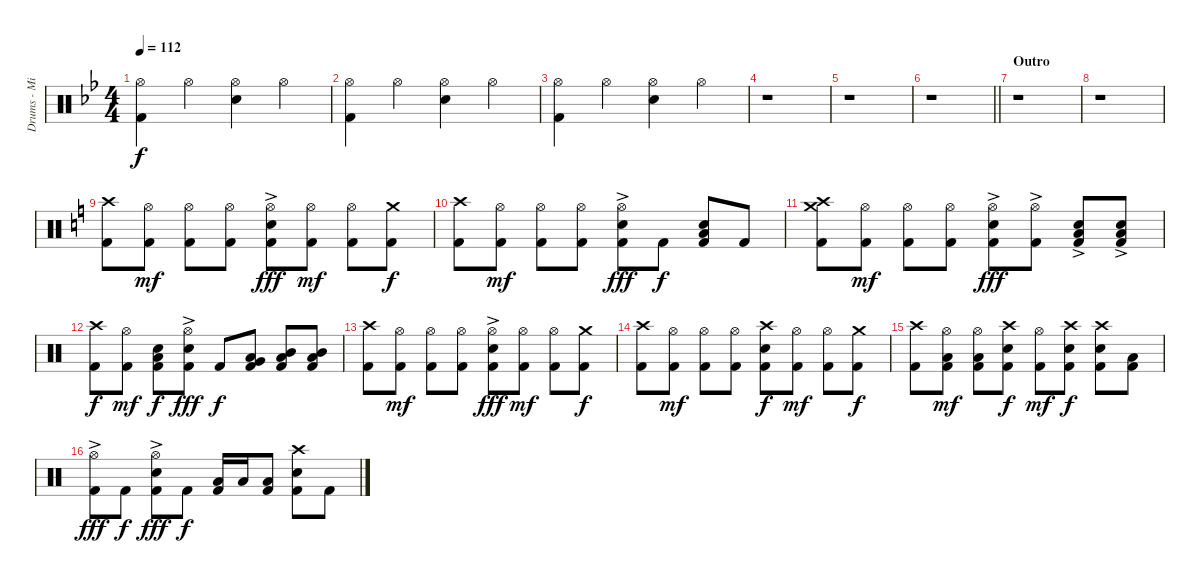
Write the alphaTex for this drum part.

\track ("Drums - Mikko" "Drums - Mi") {instrument percussion}
\staff {score}
\articulation defaults
\ts (4 4)
\tempo 112
\clef neutral
\ks bb
("Hi-Hat (open)" "Kick (hit) 2").4{dy f} "Hi-Hat (open)".4 ("Hi-Hat (open)" "Electric Snare (hit)").4 "Hi-Hat (open)".4 |
("Hi-Hat (open)" "Kick (hit) 2").4 "Hi-Hat (open)".4 ("Hi-Hat (open)" "Electric Snare (hit)").4 "Hi-Hat (open)".4 |
("Hi-Hat (open)" "Kick (hit) 2").4 "Hi-Hat (open)".4 ("Hi-Hat (open)" "Electric Snare (hit)").4 "Hi-Hat (open)".4 |
r.1 |
r.1 |
\barLineRight lightlight
r.1 |
\section ("" "Outro")
r.1 |
r.1 |
\ks c
("Crash high (hit)" "Kick (hit) 2").8 ("Hi-Hat (open)" "Kick (hit) 2").8{dy mf} ("Hi-Hat (open)" "Kick (hit) 2").8 ("Hi-Hat (open)" "Kick (hit) 2").8 ("Hi-Hat (open)"{ac} "Electric Snare (hit)" "Kick (hit) 2").8{dy fff} ("Hi-Hat (open)" "Kick (hit) 2").8{dy mf} ("Hi-Hat (open)" "Kick (hit) 2").8 ("Crash medium (hit)" "Kick (hit) 2").8{dy f} |
("Crash high (hit)" "Kick (hit) 2").8 ("Hi-Hat (open)" "Kick (hit) 2").8{dy mf} ("Hi-Hat (open)" "Kick (hit) 2").8 ("Hi-Hat (open)" "Kick (hit) 2").8 ("Hi-Hat (open)"{ac} "Electric Snare (hit)" "Kick (hit) 2").8{dy fff} "Kick (hit) 2".8{dy f} ("Low Tom (hit)" "Electric Snare (hit)" "Kick (hit) 2").8 "Kick (hit) 2".8 |
("Crash high (hit)" "Crash medium (hit)" "Kick (hit) 2").8 ("Hi-Hat (open)" "Kick (hit) 2").8{dy mf} ("Hi-Hat (open)" "Kick (hit) 2").8 ("Hi-Hat (open)" "Kick (hit) 2").8 ("Hi-Hat (open)"{ac} "Electric Snare (hit)" "Kick (hit) 2").8{dy fff} ("Hi-Hat (open)" "Kick (hit) 2"{ac}).8 ("Low Tom (hit)" "Electric Snare (hit)" "Kick (hit) 2"{ac}).8 ("Low Tom (hit)" "Electric Snare (hit)" "Kick (hit) 2"{ac}).8 |
("Crash high (hit)" "Kick (hit) 2").8{dy f} ("Hi-Hat (open)" "Kick (hit) 2").8{dy mf} ("Low Tom (hit)" "Electric Snare (hit)" "Kick (hit) 2").8{dy f} ("Hi-Hat (open)"{ac} "Electric Snare (hit)" "Kick (hit) 2").8{dy fff} "Kick (hit) 2".8{dy f} ("Very Low Tom (hit)" "Low Floor Tom (hit)" "Kick (hit) 2").8 ("Low Tom (hit)" "Mid Tom (hit)" "Kick (hit) 2").8 ("Low Tom (hit)" "Mid Tom (hit)" "Kick (hit) 2").8 |
("Crash high (hit)" "Kick (hit) 2").8 ("Hi-Hat (open)" "Kick (hit) 2").8{dy mf} ("Hi-Hat (open)" "Kick (hit) 2").8 ("Hi-Hat (open)" "Kick (hit) 2").8 ("Hi-Hat (open)"{ac} "Electric Snare (hit)" "Kick (hit) 2").8{dy fff} ("Hi-Hat (open)" "Kick (hit) 2").8{dy mf} ("Hi-Hat (open)" "Kick (hit) 2").8 ("Crash medium (hit)" "Kick (hit) 2").8{dy f} |
("Crash high (hit)" "Kick (hit) 2").8 ("Hi-Hat (open)" "Kick (hit) 2").8{dy mf} ("Hi-Hat (open)" "Kick (hit) 2").8 ("Hi-Hat (open)" "Kick (hit) 2").8 ("Crash high (hit)" "Electric Snare (hit)" "Kick (hit) 2").8{dy f} ("Hi-Hat (open)" "Kick (hit) 2").8{dy mf} ("Hi-Hat (open)" "Kick (hit) 2").8 ("Crash medium (hit)" "Kick (hit) 2").8{dy f} |
("Crash high (hit)" "Kick (hit) 2").8 ("Hi-Hat (open)" "Low Floor Tom (hit)" "Kick (hit) 2").8{dy mf} ("Hi-Hat (open)" "Low Floor Tom (hit)" "Kick (hit) 2").8 ("Crash high (hit)" "Electric Snare (hit)" "Kick (hit) 2").8{dy f} ("Hi-Hat (open)" "Kick (hit) 2").8{dy mf} ("Crash high (hit)" "Electric Snare (hit)" "Kick (hit) 2").8{dy f} ("Crash high (hit)" "Electric Snare (hit)" "Kick (hit) 2").8 ("Low Floor Tom (hit)" "Kick (hit) 2").8 |
("Hi-Hat (open)"{ac} "Kick (hit) 2").8{dy fff} "Kick (hit) 2".8{dy f} ("Hi-Hat (open)"{ac} "Electric Snare (hit)" "Kick (hit) 2").8{dy fff} "Kick (hit) 2".8{dy f} ("Low Floor Tom (hit)" "Kick (hit) 2").16 "Low Tom (hit)".16 ("Low Floor Tom (hit)" "Kick (hit) 2").8 ("Crash high (hit)" "Electric Snare (hit)" "Kick (hit) 2").8 "Kick (hit) 2".8
